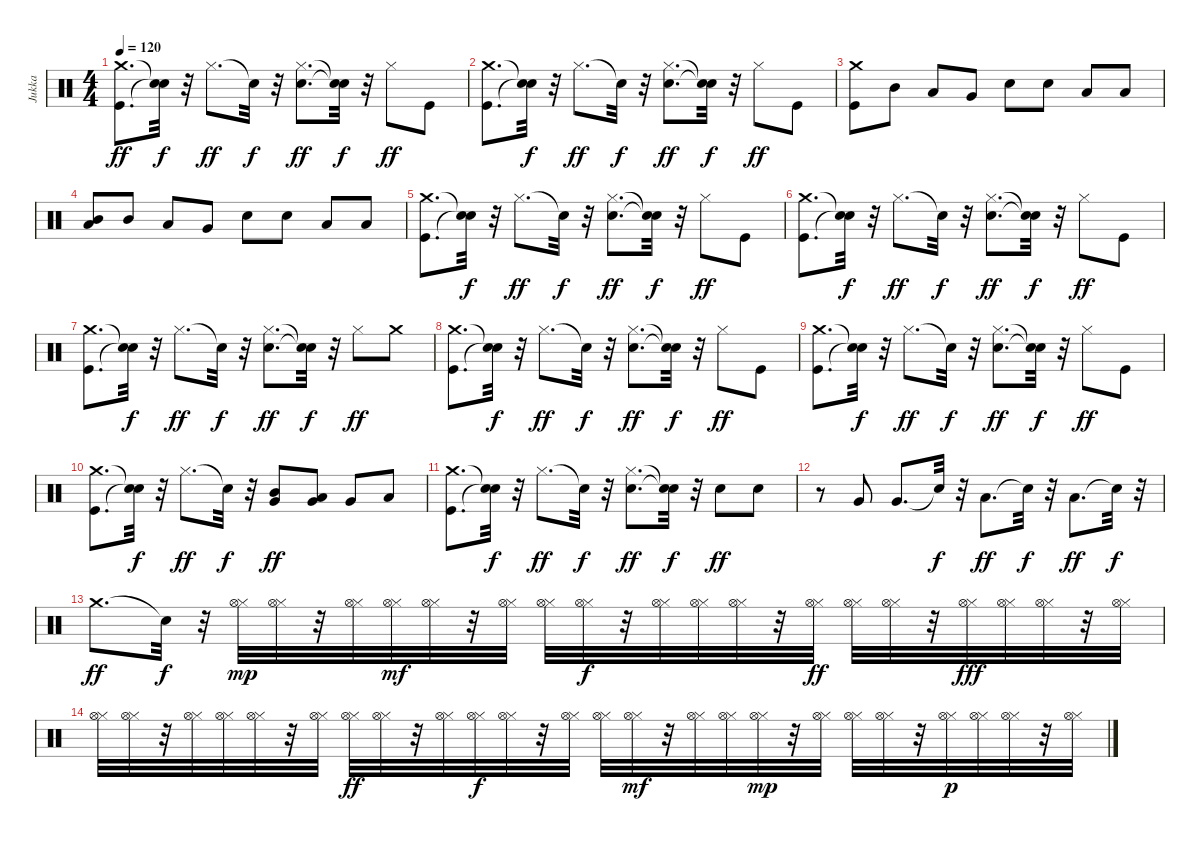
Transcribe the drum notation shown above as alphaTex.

\track ("Jukka" "Jukka") {instrument percussion}
\staff {score}
\articulation defaults
\ts (4 4)
\tempo 120
\clef neutral
\ks c
("Kick (hit)" "Crash medium (hit)").8{d dy ff} ("Snare (hit)"{t} "Snare (hit)"{t}).32{dy f} r.32 "Hi-Hat (closed)".8{d dy ff} "Snare (hit)"{t}.32{dy f} r.32 ("Electric Snare (hit)" "Hi-Hat (closed)").8{d dy ff} ("Snare (hit)"{t} "Snare (hit)"{t}).32{dy f} r.32 "Hi-Hat (closed)".8{dy ff} "Kick (hit)".8 |
("Kick (hit)" "Crash medium (hit)").8{d} ("Snare (hit)"{t} "Snare (hit)"{t}).32{dy f} r.32 "Hi-Hat (closed)".8{d dy ff} "Snare (hit)"{t}.32{dy f} r.32 ("Electric Snare (hit)" "Hi-Hat (closed)").8{d dy ff} ("Snare (hit)"{t} "Snare (hit)"{t}).32{dy f} r.32 "Hi-Hat (closed)".8{dy ff} "Kick (hit)".8 |
("Kick (hit)" "Crash medium (hit)").8 "Mid Tom (hit)".8 "Low Tom (hit)".8 "Very Low Tom (hit)".8 "Electric Snare (hit)".8 "Electric Snare (hit)".8 "Low Floor Tom (hit)".8 "Low Floor Tom (hit)".8 |
("Low Tom (hit)" "Mid Tom (hit)").8 "Mid Tom (hit)".8 "Low Tom (hit)".8 "Very Low Tom (hit)".8 "Electric Snare (hit)".8 "Electric Snare (hit)".8 "Low Floor Tom (hit)".8 "Low Floor Tom (hit)".8 |
("Kick (hit)" "Crash medium (hit)").8{d} ("Snare (hit)"{t} "Snare (hit)"{t}).32{dy f} r.32 "Hi-Hat (closed)".8{d dy ff} "Snare (hit)"{t}.32{dy f} r.32 ("Electric Snare (hit)" "Hi-Hat (closed)").8{d dy ff} ("Snare (hit)"{t} "Snare (hit)"{t}).32{dy f} r.32 "Hi-Hat (closed)".8{dy ff} "Kick (hit)".8 |
("Kick (hit)" "Crash medium (hit)").8{d} ("Snare (hit)"{t} "Snare (hit)"{t}).32{dy f} r.32 "Hi-Hat (closed)".8{d dy ff} "Snare (hit)"{t}.32{dy f} r.32 ("Electric Snare (hit)" "Hi-Hat (closed)").8{d dy ff} ("Snare (hit)"{t} "Snare (hit)"{t}).32{dy f} r.32 "Hi-Hat (closed)".8{dy ff} "Kick (hit)".8 |
("Kick (hit)" "Crash medium (hit)").8{d} ("Snare (hit)"{t} "Snare (hit)"{t}).32{dy f} r.32 "Hi-Hat (closed)".8{d dy ff} "Snare (hit)"{t}.32{dy f} r.32 ("Electric Snare (hit)" "Hi-Hat (closed)").8{d dy ff} ("Snare (hit)"{t} "Snare (hit)"{t}).32{dy f} r.32 "Hi-Hat (closed)".8{dy ff} "Crash medium (hit)".8 |
("Kick (hit)" "Crash medium (hit)").8{d} ("Snare (hit)"{t} "Snare (hit)"{t}).32{dy f} r.32 "Hi-Hat (closed)".8{d dy ff} "Snare (hit)"{t}.32{dy f} r.32 ("Electric Snare (hit)" "Hi-Hat (closed)").8{d dy ff} ("Snare (hit)"{t} "Snare (hit)"{t}).32{dy f} r.32 "Hi-Hat (closed)".8{dy ff} "Kick (hit)".8 |
("Kick (hit)" "Crash medium (hit)").8{d} ("Snare (hit)"{t} "Snare (hit)"{t}).32{dy f} r.32 "Hi-Hat (closed)".8{d dy ff} "Snare (hit)"{t}.32{dy f} r.32 ("Electric Snare (hit)" "Hi-Hat (closed)").8{d dy ff} ("Snare (hit)"{t} "Snare (hit)"{t}).32{dy f} r.32 "Hi-Hat (closed)".8{dy ff} "Kick (hit)".8 |
("Kick (hit)" "Crash medium (hit)").8{d} ("Snare (hit)"{t} "Snare (hit)"{t}).32{dy f} r.32 "Hi-Hat (closed)".8{d dy ff} "Snare (hit)"{t}.32{dy f} r.32 ("Very Low Tom (hit)" "Mid Tom (hit)").8{dy ff} ("Very Low Tom (hit)" "Low Tom (hit)").8 "Very Low Tom (hit)".8 "Low Floor Tom (hit)".8 |
("Kick (hit)" "Crash medium (hit)").8{d} ("Snare (hit)"{t} "Snare (hit)"{t}).32{dy f} r.32 "Hi-Hat (closed)".8{d dy ff} "Snare (hit)"{t}.32{dy f} r.32 ("Electric Snare (hit)" "Hi-Hat (closed)").8{d dy ff} ("Snare (hit)"{t} "Snare (hit)"{t}).32{dy f} r.32 "Electric Snare (hit)".8{dy ff} "Electric Snare (hit)".8 |
r.8 "Very Low Tom (hit)".8 "Very Low Tom (hit)".8{d} "Snare (hit)"{t}.32{dy f} r.32 "Low Floor Tom (hit)".8{d dy ff} "Snare (hit)"{t}.32{dy f} r.32 "Low Floor Tom (hit)".8{d dy ff} "Snare (hit)"{t}.32{dy f} r.32 |
"Crash medium (hit)".8{d dy ff} "Snare (hit)"{t}.32{dy f} r.32 ("Hi-Hat (closed)" "Hi-Hat (open)").32{dy mp} ("Hi-Hat (closed)" "Hi-Hat (open)").32 r.32 ("Hi-Hat (closed)" "Hi-Hat (open)").32 ("Hi-Hat (closed)" "Hi-Hat (open)").32{dy mf} ("Hi-Hat (closed)" "Hi-Hat (open)").32 r.32 ("Hi-Hat (closed)" "Hi-Hat (open)").32 ("Hi-Hat (closed)" "Hi-Hat (open)").32 ("Hi-Hat (closed)" "Hi-Hat (open)").32{dy f} r.32 ("Hi-Hat (closed)" "Hi-Hat (open)").32 ("Hi-Hat (closed)" "Hi-Hat (open)").32 ("Hi-Hat (closed)" "Hi-Hat (open)").32 r.32 ("Hi-Hat (closed)" "Hi-Hat (open)").32{dy ff} ("Hi-Hat (closed)" "Hi-Hat (open)").32 ("Hi-Hat (closed)" "Hi-Hat (open)").32 r.32 ("Hi-Hat (closed)" "Hi-Hat (open)").32{dy fff} ("Hi-Hat (closed)" "Hi-Hat (open)").32 ("Hi-Hat (closed)" "Hi-Hat (open)").32 r.32 ("Hi-Hat (closed)" "Hi-Hat (open)").32 |
("Hi-Hat (closed)" "Hi-Hat (open)").32 ("Hi-Hat (closed)" "Hi-Hat (open)").32 r.32 ("Hi-Hat (closed)" "Hi-Hat (open)").32 ("Hi-Hat (closed)" "Hi-Hat (open)").32 ("Hi-Hat (closed)" "Hi-Hat (open)").32 r.32 ("Hi-Hat (closed)" "Hi-Hat (open)").32 ("Hi-Hat (closed)" "Hi-Hat (open)").32{dy ff} ("Hi-Hat (closed)" "Hi-Hat (open)").32 r.32 ("Hi-Hat (closed)" "Hi-Hat (open)").32 ("Hi-Hat (closed)" "Hi-Hat (open)").32{dy f} ("Hi-Hat (closed)" "Hi-Hat (open)").32 r.32 ("Hi-Hat (closed)" "Hi-Hat (open)").32 ("Hi-Hat (closed)" "Hi-Hat (open)").32 ("Hi-Hat (closed)" "Hi-Hat (open)").32{dy mf} r.32 ("Hi-Hat (closed)" "Hi-Hat (open)").32 ("Hi-Hat (closed)" "Hi-Hat (open)").32 ("Hi-Hat (closed)" "Hi-Hat (open)").32{dy mp} r.32 ("Hi-Hat (closed)" "Hi-Hat (open)").32 ("Hi-Hat (closed)" "Hi-Hat (open)").32 ("Hi-Hat (closed)" "Hi-Hat (open)").32 r.32 ("Hi-Hat (closed)" "Hi-Hat (open)").32{dy p} ("Hi-Hat (closed)" "Hi-Hat (open)").32 ("Hi-Hat (closed)" "Hi-Hat (open)").32 r.32 ("Hi-Hat (closed)" "Hi-Hat (open)").32
